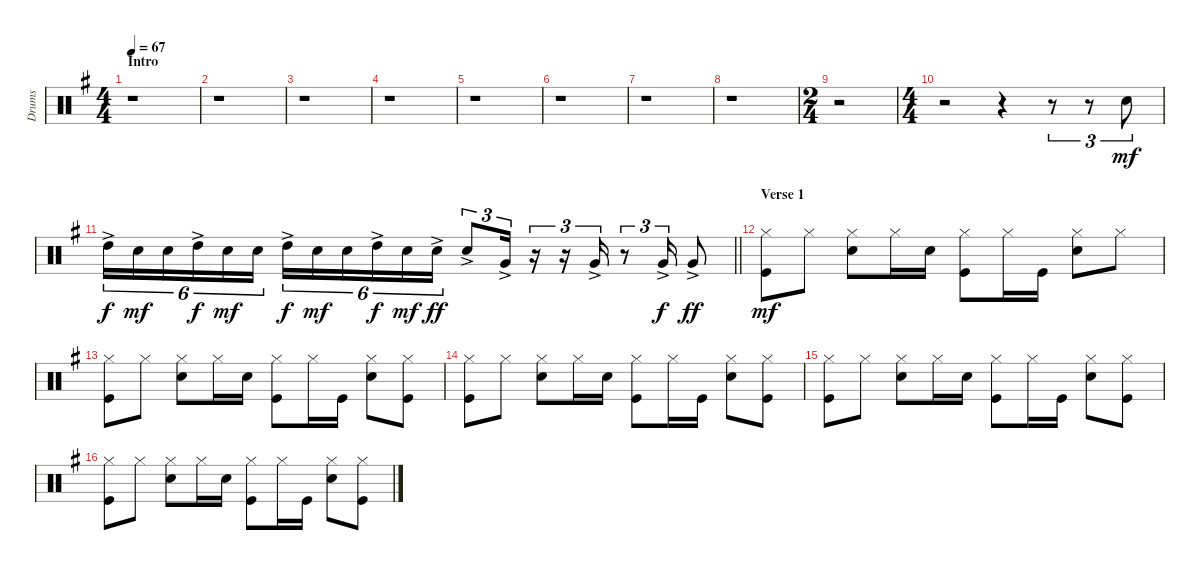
\track ("Drums" "Drums") {instrument percussion}
\staff {score}
\articulation defaults
\ts (4 4)
\section ("" "Intro")
\tempo 67
\clef neutral
\ks g
r.1{dy mf} |
r.1 |
r.1 |
r.1 |
r.1 |
r.1 |
r.1 |
r.1 |
\ts (2 4)
r.2 |
\ts (4 4)
r.2 r.4 r.8{tu (3 2)} r.8{tu (3 2)} "Snare (hit) 2".8{tu (3 2)} |
\barLineRight lightlight "High Tom (hit)"{ac}.16{tu (6 4) dy f} "Snare (hit) 2".16{tu (6 4) dy mf} "Snare (hit) 2".16{tu (6 4)} "High Tom (hit)"{ac}.16{tu (6 4) dy f} "Snare (hit) 2".16{tu (6 4) dy mf} "Snare (hit) 2".16{tu (6 4)} "High Tom (hit)"{ac}.16{tu (6 4) dy f} "Snare (hit) 2".16{tu (6 4) dy mf} "Snare (hit) 2".16{tu (6 4)} "High Tom (hit)"{ac}.16{tu (6 4) dy f} "Snare (hit) 2".16{tu (6 4) dy mf} "Snare (hit) 2"{ac}.16{tu (6 4) dy ff} "Snare (hit) 2"{ac}.8{tu (3 2)} "Very Low Tom (hit)"{ac}.16{tu (3 2)}
r.16{tu (3 2)} r.16{tu (3 2)} "Very Low Tom (hit)"{ac}.16{tu (3 2)} r.8{tu (3 2)} "Very Low Tom (hit)"{ac}.16{tu (3 2) dy f} "Very Low Tom (hit)"{ac}.8{dy ff} |
\section ("" "Verse 1")
("Kick (hit)" "Hi-Hat (closed)").8{dy mf} "Hi-Hat (closed)".8 ("Hi-Hat (closed)" "Snare (hit) 2").8 "Hi-Hat (closed)".16 "Snare (hit) 2".16 ("Kick (hit)" "Hi-Hat (closed)").8 "Hi-Hat (closed)".16 "Kick (hit)".16 ("Hi-Hat (closed)" "Snare (hit) 2").8 "Hi-Hat (closed)".8 |
("Kick (hit)" "Hi-Hat (closed)").8 "Hi-Hat (closed)".8 ("Hi-Hat (closed)" "Snare (hit) 2").8 "Hi-Hat (closed)".16 "Snare (hit) 2".16 ("Kick (hit)" "Hi-Hat (closed)").8 "Hi-Hat (closed)".16 "Kick (hit)".16 ("Hi-Hat (closed)" "Snare (hit) 2").8 ("Hi-Hat (closed)" "Kick (hit)").8 |
("Kick (hit)" "Hi-Hat (closed)").8 "Hi-Hat (closed)".8 ("Hi-Hat (closed)" "Snare (hit) 2").8 "Hi-Hat (closed)".16 "Snare (hit) 2".16 ("Kick (hit)" "Hi-Hat (closed)").8 "Hi-Hat (closed)".16 "Kick (hit)".16 ("Hi-Hat (closed)" "Snare (hit) 2").8 ("Hi-Hat (closed)" "Kick (hit)").8 |
("Kick (hit)" "Hi-Hat (closed)").8 "Hi-Hat (closed)".8 ("Hi-Hat (closed)" "Snare (hit) 2").8 "Hi-Hat (closed)".16 "Snare (hit) 2".16 ("Kick (hit)" "Hi-Hat (closed)").8 "Hi-Hat (closed)".16 "Kick (hit)".16 ("Hi-Hat (closed)" "Snare (hit) 2").8 ("Hi-Hat (closed)" "Kick (hit)").8 |
("Kick (hit)" "Hi-Hat (closed)").8 "Hi-Hat (closed)".8 ("Hi-Hat (closed)" "Snare (hit) 2").8 "Hi-Hat (closed)".16 "Snare (hit) 2".16 ("Kick (hit)" "Hi-Hat (closed)").8 "Hi-Hat (closed)".16 "Kick (hit)".16 ("Hi-Hat (closed)" "Snare (hit) 2").8 ("Hi-Hat (closed)" "Kick (hit)").8
